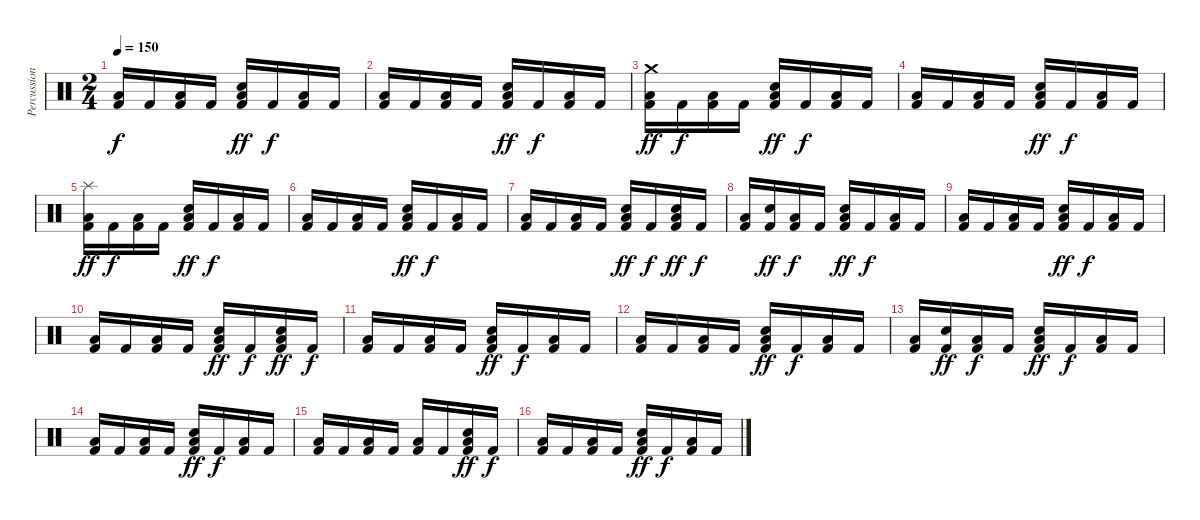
\track ("Percussion" "Percussion") {instrument percussion}
\staff {score}
\articulation defaults
\ts (2 4)
\tempo 150
\clef neutral
\ks c
("Kick (hit) 2" "Low Tom (hit)").16{dy f} "Kick (hit) 2".16 ("Kick (hit) 2" "Low Tom (hit)").16 "Kick (hit) 2".16 ("Kick (hit) 2" "Snare (hit) 2" "Low Tom (hit)").16{dy ff} "Kick (hit) 2".16{dy f} ("Kick (hit) 2" "Low Tom (hit)").16 "Kick (hit) 2".16 |
("Kick (hit) 2" "Low Tom (hit)").16 "Kick (hit) 2".16 ("Kick (hit) 2" "Low Tom (hit)").16 "Kick (hit) 2".16 ("Kick (hit) 2" "Snare (hit) 2" "Low Tom (hit)").16{dy ff} "Kick (hit) 2".16{dy f} ("Kick (hit) 2" "Low Tom (hit)").16 "Kick (hit) 2".16 |
("Kick (hit) 2" "Crash medium (hit)" "Low Tom (hit)").16{dy ff} "Kick (hit) 2".16{dy f} ("Kick (hit) 2" "Low Tom (hit)").16 "Kick (hit) 2".16 ("Kick (hit) 2" "Snare (hit) 2" "Low Tom (hit)").16{dy ff} "Kick (hit) 2".16{dy f} ("Kick (hit) 2" "Low Tom (hit)").16 "Kick (hit) 2".16 |
("Kick (hit) 2" "Low Tom (hit)").16 "Kick (hit) 2".16 ("Kick (hit) 2" "Low Tom (hit)").16 "Kick (hit) 2".16 ("Kick (hit) 2" "Snare (hit) 2" "Low Tom (hit)").16{dy ff} "Kick (hit) 2".16{dy f} ("Kick (hit) 2" "Low Tom (hit)").16 "Kick (hit) 2".16 |
("Kick (hit) 2" "Splash (hit)" "Low Tom (hit)").16{dy ff} "Kick (hit) 2".16{dy f} ("Kick (hit) 2" "Low Tom (hit)").16 "Kick (hit) 2".16 ("Kick (hit) 2" "Snare (hit) 2" "Low Tom (hit)").16{dy ff} "Kick (hit) 2".16{dy f} ("Kick (hit) 2" "Low Tom (hit)").16 "Kick (hit) 2".16 |
("Kick (hit) 2" "Low Tom (hit)").16 "Kick (hit) 2".16 ("Kick (hit) 2" "Low Tom (hit)").16 "Kick (hit) 2".16 ("Kick (hit) 2" "Snare (hit) 2" "Low Tom (hit)").16{dy ff} "Kick (hit) 2".16{dy f} ("Kick (hit) 2" "Low Tom (hit)").16 "Kick (hit) 2".16 |
("Kick (hit) 2" "Low Tom (hit)").16 "Kick (hit) 2".16 ("Kick (hit) 2" "Low Tom (hit)").16 "Kick (hit) 2".16 ("Kick (hit) 2" "Snare (hit) 2" "Low Tom (hit)").16{dy ff} "Kick (hit) 2".16{dy f} ("Kick (hit) 2" "Snare (hit) 2" "Low Tom (hit)").16{dy ff} "Kick (hit) 2".16{dy f} |
("Kick (hit) 2" "Low Tom (hit)").16 ("Kick (hit) 2" "Snare (hit) 2").16{dy ff} ("Kick (hit) 2" "Low Tom (hit)").16{dy f} "Kick (hit) 2".16 ("Kick (hit) 2" "Snare (hit) 2" "Low Tom (hit)").16{dy ff} "Kick (hit) 2".16{dy f} ("Kick (hit) 2" "Low Tom (hit)").16 "Kick (hit) 2".16 |
("Kick (hit) 2" "Low Tom (hit)").16 "Kick (hit) 2".16 ("Kick (hit) 2" "Low Tom (hit)").16 "Kick (hit) 2".16 ("Kick (hit) 2" "Snare (hit) 2" "Low Tom (hit)").16{dy ff} "Kick (hit) 2".16{dy f} ("Kick (hit) 2" "Low Tom (hit)").16 "Kick (hit) 2".16 |
("Kick (hit) 2" "Low Tom (hit)").16 "Kick (hit) 2".16 ("Kick (hit) 2" "Low Tom (hit)").16 "Kick (hit) 2".16 ("Kick (hit) 2" "Snare (hit) 2" "Low Tom (hit)").16{dy ff} "Kick (hit) 2".16{dy f} ("Kick (hit) 2" "Snare (hit) 2" "Low Tom (hit)").16{dy ff} "Kick (hit) 2".16{dy f} |
("Kick (hit) 2" "Low Tom (hit)").16 "Kick (hit) 2".16 ("Kick (hit) 2" "Low Tom (hit)").16 "Kick (hit) 2".16 ("Kick (hit) 2" "Snare (hit) 2" "Low Tom (hit)").16{dy ff} "Kick (hit) 2".16{dy f} ("Kick (hit) 2" "Low Tom (hit)").16 "Kick (hit) 2".16 |
("Kick (hit) 2" "Low Tom (hit)").16 "Kick (hit) 2".16 ("Kick (hit) 2" "Low Tom (hit)").16 "Kick (hit) 2".16 ("Kick (hit) 2" "Snare (hit) 2" "Low Tom (hit)").16{dy ff} "Kick (hit) 2".16{dy f} ("Kick (hit) 2" "Low Tom (hit)").16 "Kick (hit) 2".16 |
("Kick (hit) 2" "Low Tom (hit)").16 ("Kick (hit) 2" "Snare (hit) 2").16{dy ff} ("Kick (hit) 2" "Low Tom (hit)").16{dy f} "Kick (hit) 2".16 ("Kick (hit) 2" "Snare (hit) 2" "Low Tom (hit)").16{dy ff} "Kick (hit) 2".16{dy f} ("Kick (hit) 2" "Low Tom (hit)").16 "Kick (hit) 2".16 |
("Kick (hit) 2" "Low Tom (hit)").16 "Kick (hit) 2".16 ("Kick (hit) 2" "Low Tom (hit)").16 "Kick (hit) 2".16 ("Kick (hit) 2" "Snare (hit) 2" "Low Tom (hit)").16{dy ff} "Kick (hit) 2".16{dy f} ("Kick (hit) 2" "Low Tom (hit)").16 "Kick (hit) 2".16 |
("Kick (hit) 2" "Low Tom (hit)").16 "Kick (hit) 2".16 ("Kick (hit) 2" "Low Tom (hit)").16 "Kick (hit) 2".16 ("Kick (hit) 2" "Low Tom (hit)").16 "Kick (hit) 2".16 ("Kick (hit) 2" "Snare (hit) 2" "Low Tom (hit)").16{dy ff} "Kick (hit) 2".16{dy f} |
("Kick (hit) 2" "Low Tom (hit)").16 "Kick (hit) 2".16 ("Kick (hit) 2" "Low Tom (hit)").16 "Kick (hit) 2".16 ("Kick (hit) 2" "Snare (hit) 2" "Low Tom (hit)").16{dy ff} "Kick (hit) 2".16{dy f} ("Kick (hit) 2" "Low Tom (hit)").16 "Kick (hit) 2".16
